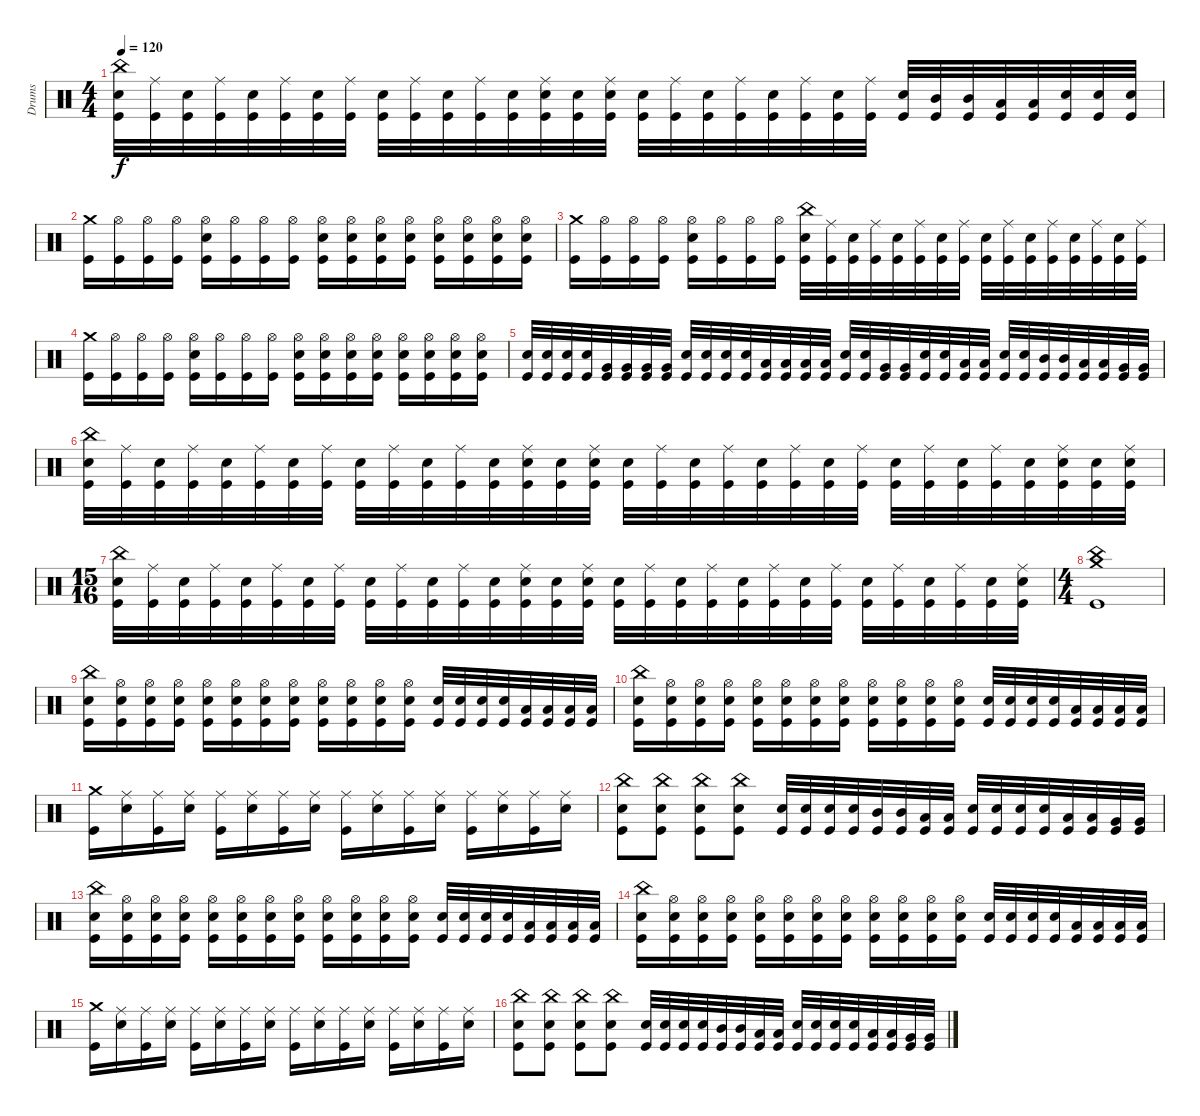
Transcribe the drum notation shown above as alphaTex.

\track ("Drums" "Drums") {instrument percussion}
\staff {score}
\articulation defaults
\ts (4 4)
\tempo 120
\clef neutral
\ks c
("China (hit)" "Electric Snare (hit)" "Kick (hit)").32{dy f} ("Ride (middle)" "Kick (hit)").32 ("Electric Snare (hit)" "Kick (hit)").32 ("Ride (middle)" "Kick (hit)").32 ("Electric Snare (hit)" "Kick (hit)").32 ("Ride (middle)" "Kick (hit)").32 ("Electric Snare (hit)" "Kick (hit)").32 ("Ride (middle)" "Kick (hit)").32 ("Electric Snare (hit)" "Kick (hit)").32 ("Ride (middle)" "Kick (hit)").32 ("Electric Snare (hit)" "Kick (hit)").32 ("Ride (middle)" "Kick (hit)").32 ("Electric Snare (hit)" "Kick (hit)").32 ("Ride (middle)" "Electric Snare (hit)" "Kick (hit)").32 ("Electric Snare (hit)" "Kick (hit)").32 ("Ride (middle)" "Electric Snare (hit)" "Kick (hit)").32 ("Electric Snare (hit)" "Kick (hit)").32 ("Ride (middle)" "Kick (hit)").32 ("Electric Snare (hit)" "Kick (hit)").32 ("Ride (middle)" "Kick (hit)").32 ("Electric Snare (hit)" "Kick (hit)").32 ("Ride (middle)" "Kick (hit)").32 ("Electric Snare (hit)" "Kick (hit)").32 ("Ride (middle)" "Kick (hit)").32 ("Electric Snare (hit)" "Kick (hit)").32 ("Mid Tom (hit)" "Kick (hit)").32 ("Mid Tom (hit)" "Kick (hit)").32 ("Low Tom (hit)" "Kick (hit)").32 ("Low Tom (hit)" "Kick (hit)").32 ("Electric Snare (hit)" "Kick (hit)").32 ("Electric Snare (hit)" "Kick (hit)").32 ("Electric Snare (hit)" "Kick (hit)").32 |
("Crash medium (hit)" "Kick (hit)").16 ("Hi-Hat (open)" "Kick (hit)").16 ("Hi-Hat (open)" "Kick (hit)").16 ("Hi-Hat (open)" "Kick (hit)").16 ("Hi-Hat (open)" "Electric Snare (hit)" "Kick (hit)").16 ("Hi-Hat (open)" "Kick (hit)").16 ("Hi-Hat (open)" "Kick (hit)").16 ("Hi-Hat (open)" "Kick (hit)").16 ("Hi-Hat (open)" "Electric Snare (hit)" "Kick (hit)").16 ("Hi-Hat (open)" "Electric Snare (hit)" "Kick (hit)").16 ("Hi-Hat (open)" "Electric Snare (hit)" "Kick (hit)").16 ("Hi-Hat (open)" "Electric Snare (hit)" "Kick (hit)").16 ("Hi-Hat (open)" "Electric Snare (hit)" "Kick (hit)").16 ("Hi-Hat (open)" "Electric Snare (hit)" "Kick (hit)").16 ("Hi-Hat (open)" "Electric Snare (hit)" "Kick (hit)").16 ("Hi-Hat (open)" "Electric Snare (hit)" "Kick (hit)").16 |
("Crash medium (hit)" "Kick (hit)").16 ("Hi-Hat (open)" "Kick (hit)").16 ("Hi-Hat (open)" "Kick (hit)").16 ("Hi-Hat (open)" "Kick (hit)").16 ("Hi-Hat (open)" "Electric Snare (hit)" "Kick (hit)").16 ("Hi-Hat (open)" "Kick (hit)").16 ("Hi-Hat (open)" "Kick (hit)").16 ("Hi-Hat (open)" "Kick (hit)").16 ("China (hit)" "Electric Snare (hit)" "Kick (hit)").32 ("Ride (middle)" "Kick (hit)").32 ("Electric Snare (hit)" "Kick (hit)").32 ("Ride (middle)" "Kick (hit)").32 ("Electric Snare (hit)" "Kick (hit)").32 ("Ride (middle)" "Kick (hit)").32 ("Electric Snare (hit)" "Kick (hit)").32 ("Ride (middle)" "Kick (hit)").32 ("Electric Snare (hit)" "Kick (hit)").32 ("Ride (middle)" "Kick (hit)").32 ("Electric Snare (hit)" "Kick (hit)").32 ("Ride (middle)" "Kick (hit)").32 ("Electric Snare (hit)" "Kick (hit)").32 ("Ride (middle)" "Kick (hit)").32 ("Electric Snare (hit)" "Kick (hit)").32 ("Ride (middle)" "Kick (hit)").32 |
("Crash medium (hit)" "Kick (hit)").16 ("Hi-Hat (open)" "Kick (hit)").16 ("Hi-Hat (open)" "Kick (hit)").16 ("Hi-Hat (open)" "Kick (hit)").16 ("Hi-Hat (open)" "Electric Snare (hit)" "Kick (hit)").16 ("Hi-Hat (open)" "Kick (hit)").16 ("Hi-Hat (open)" "Kick (hit)").16 ("Hi-Hat (open)" "Kick (hit)").16 ("Hi-Hat (open)" "Electric Snare (hit)" "Kick (hit)").16 ("Hi-Hat (open)" "Electric Snare (hit)" "Kick (hit)").16 ("Hi-Hat (open)" "Electric Snare (hit)" "Kick (hit)").16 ("Hi-Hat (open)" "Electric Snare (hit)" "Kick (hit)").16 ("Hi-Hat (open)" "Electric Snare (hit)" "Kick (hit)").16 ("Hi-Hat (open)" "Electric Snare (hit)" "Kick (hit)").16 ("Hi-Hat (open)" "Electric Snare (hit)" "Kick (hit)").16 ("Hi-Hat (open)" "Electric Snare (hit)" "Kick (hit)").16 |
("Electric Snare (hit)" "Kick (hit)").32 ("Electric Snare (hit)" "Kick (hit)").32 ("Electric Snare (hit)" "Kick (hit)").32 ("Electric Snare (hit)" "Kick (hit)").32 ("Very Low Tom (hit)" "Kick (hit)").32 ("Very Low Tom (hit)" "Kick (hit)").32 ("Very Low Tom (hit)" "Kick (hit)").32 ("Very Low Tom (hit)" "Kick (hit)").32 ("Electric Snare (hit)" "Kick (hit)").32 ("Electric Snare (hit)" "Kick (hit)").32 ("Electric Snare (hit)" "Kick (hit)").32 ("Electric Snare (hit)" "Kick (hit)").32 ("Low Tom (hit)" "Kick (hit)").32 ("Low Tom (hit)" "Kick (hit)").32 ("Low Tom (hit)" "Kick (hit)").32 ("Low Tom (hit)" "Kick (hit)").32 ("Electric Snare (hit)" "Kick (hit)").32 ("Electric Snare (hit)" "Kick (hit)").32 ("Very Low Tom (hit)" "Kick (hit)").32 ("Very Low Tom (hit)" "Kick (hit)").32 ("Electric Snare (hit)" "Kick (hit)").32 ("Electric Snare (hit)" "Kick (hit)").32 ("Low Floor Tom (hit)" "Kick (hit)").32 ("Low Floor Tom (hit)" "Kick (hit)").32 ("Electric Snare (hit)" "Kick (hit)").32 ("Electric Snare (hit)" "Kick (hit)").32 ("Mid Tom (hit)" "Kick (hit)").32 ("Mid Tom (hit)" "Kick (hit)").32 ("Low Tom (hit)" "Kick (hit)").32 ("Low Tom (hit)" "Kick (hit)").32 ("Very Low Tom (hit)" "Kick (hit)").32 ("Very Low Tom (hit)" "Kick (hit)").32 |
("China (hit)" "Electric Snare (hit)" "Kick (hit)").32 ("Ride (middle)" "Kick (hit)").32 ("Electric Snare (hit)" "Kick (hit)").32 ("Ride (middle)" "Kick (hit)").32 ("Electric Snare (hit)" "Kick (hit)").32 ("Ride (middle)" "Kick (hit)").32 ("Electric Snare (hit)" "Kick (hit)").32 ("Ride (middle)" "Kick (hit)").32 ("Electric Snare (hit)" "Kick (hit)").32 ("Ride (middle)" "Kick (hit)").32 ("Electric Snare (hit)" "Kick (hit)").32 ("Ride (middle)" "Kick (hit)").32 ("Electric Snare (hit)" "Kick (hit)").32 ("Ride (middle)" "Electric Snare (hit)" "Kick (hit)").32 ("Electric Snare (hit)" "Kick (hit)").32 ("Ride (middle)" "Electric Snare (hit)" "Kick (hit)").32 ("Electric Snare (hit)" "Kick (hit)").32 ("Ride (middle)" "Kick (hit)").32 ("Electric Snare (hit)" "Kick (hit)").32 ("Ride (middle)" "Kick (hit)").32 ("Electric Snare (hit)" "Kick (hit)").32 ("Ride (middle)" "Kick (hit)").32 ("Electric Snare (hit)" "Kick (hit)").32 ("Ride (middle)" "Kick (hit)").32 ("Electric Snare (hit)" "Kick (hit)").32 ("Ride (middle)" "Kick (hit)").32 ("Electric Snare (hit)" "Kick (hit)").32 ("Ride (middle)" "Kick (hit)").32 ("Electric Snare (hit)" "Kick (hit)").32 ("Ride (middle)" "Electric Snare (hit)" "Kick (hit)").32 ("Electric Snare (hit)" "Kick (hit)").32 ("Ride (middle)" "Electric Snare (hit)" "Kick (hit)").32 |
\ts (15 16)
("China (hit)" "Electric Snare (hit)" "Kick (hit)").32 ("Ride (middle)" "Kick (hit)").32 ("Electric Snare (hit)" "Kick (hit)").32 ("Ride (middle)" "Kick (hit)").32 ("Electric Snare (hit)" "Kick (hit)").32 ("Ride (middle)" "Kick (hit)").32 ("Electric Snare (hit)" "Kick (hit)").32 ("Ride (middle)" "Kick (hit)").32 ("Electric Snare (hit)" "Kick (hit)").32 ("Ride (middle)" "Kick (hit)").32 ("Electric Snare (hit)" "Kick (hit)").32 ("Ride (middle)" "Kick (hit)").32 ("Electric Snare (hit)" "Kick (hit)").32 ("Ride (middle)" "Electric Snare (hit)" "Kick (hit)").32 ("Electric Snare (hit)" "Kick (hit)").32 ("Ride (middle)" "Electric Snare (hit)" "Kick (hit)").32 ("Electric Snare (hit)" "Kick (hit)").32 ("Ride (middle)" "Kick (hit)").32 ("Electric Snare (hit)" "Kick (hit)").32 ("Ride (middle)" "Kick (hit)").32 ("Electric Snare (hit)" "Kick (hit)").32 ("Ride (middle)" "Kick (hit)").32 ("Electric Snare (hit)" "Kick (hit)").32 ("Ride (middle)" "Kick (hit)").32 ("Electric Snare (hit)" "Kick (hit)").32 ("Ride (middle)" "Kick (hit)").32 ("Electric Snare (hit)" "Kick (hit)").32 ("Ride (middle)" "Kick (hit)").32 ("Electric Snare (hit)" "Kick (hit)").32 ("Ride (middle)" "Electric Snare (hit)" "Kick (hit)").32 |
\ts (4 4)
("Crash medium (hit)" "China (hit)" "Kick (hit)").1 |
("China (hit)" "Electric Snare (hit)" "Kick (hit)").16 ("Hi-Hat (open)" "Electric Snare (hit)" "Kick (hit)").16 ("Hi-Hat (open)" "Electric Snare (hit)" "Kick (hit)").16 ("Hi-Hat (open)" "Electric Snare (hit)" "Kick (hit)").16 ("Hi-Hat (open)" "Electric Snare (hit)" "Kick (hit)").16 ("Hi-Hat (open)" "Electric Snare (hit)" "Kick (hit)").16 ("Hi-Hat (open)" "Electric Snare (hit)" "Kick (hit)").16 ("Hi-Hat (open)" "Electric Snare (hit)" "Kick (hit)").16 ("Hi-Hat (open)" "Electric Snare (hit)" "Kick (hit)").16 ("Hi-Hat (open)" "Electric Snare (hit)" "Kick (hit)").16 ("Hi-Hat (open)" "Electric Snare (hit)" "Kick (hit)").16 ("Hi-Hat (open)" "Electric Snare (hit)" "Kick (hit)").16 ("Electric Snare (hit)" "Kick (hit)").32 ("Electric Snare (hit)" "Kick (hit)").32 ("Electric Snare (hit)" "Kick (hit)").32 ("Electric Snare (hit)" "Kick (hit)").32 ("Low Tom (hit)" "Kick (hit)").32 ("Low Tom (hit)" "Kick (hit)").32 ("Low Tom (hit)" "Kick (hit)").32 ("Low Tom (hit)" "Kick (hit)").32 |
("China (hit)" "Electric Snare (hit)" "Kick (hit)").16 ("Hi-Hat (open)" "Electric Snare (hit)" "Kick (hit)").16 ("Hi-Hat (open)" "Electric Snare (hit)" "Kick (hit)").16 ("Hi-Hat (open)" "Electric Snare (hit)" "Kick (hit)").16 ("Hi-Hat (open)" "Electric Snare (hit)" "Kick (hit)").16 ("Hi-Hat (open)" "Electric Snare (hit)" "Kick (hit)").16 ("Hi-Hat (open)" "Electric Snare (hit)" "Kick (hit)").16 ("Hi-Hat (open)" "Electric Snare (hit)" "Kick (hit)").16 ("Hi-Hat (open)" "Electric Snare (hit)" "Kick (hit)").16 ("Hi-Hat (open)" "Electric Snare (hit)" "Kick (hit)").16 ("Hi-Hat (open)" "Electric Snare (hit)" "Kick (hit)").16 ("Hi-Hat (open)" "Electric Snare (hit)" "Kick (hit)").16 ("Electric Snare (hit)" "Kick (hit)").32 ("Electric Snare (hit)" "Kick (hit)").32 ("Electric Snare (hit)" "Kick (hit)").32 ("Electric Snare (hit)" "Kick (hit)").32 ("Low Tom (hit)" "Kick (hit)").32 ("Low Tom (hit)" "Kick (hit)").32 ("Low Tom (hit)" "Kick (hit)").32 ("Low Tom (hit)" "Kick (hit)").32 |
("Crash medium (hit)" "Kick (hit)").16 ("Ride (middle)" "Electric Snare (hit)").16 ("Ride (middle)" "Kick (hit)").16 ("Ride (middle)" "Electric Snare (hit)").16 ("Ride (middle)" "Kick (hit)").16 ("Ride (middle)" "Electric Snare (hit)").16 ("Ride (middle)" "Kick (hit)").16 ("Ride (middle)" "Electric Snare (hit)").16 ("Ride (middle)" "Kick (hit)").16 ("Ride (middle)" "Electric Snare (hit)").16 ("Ride (middle)" "Kick (hit)").16 ("Ride (middle)" "Electric Snare (hit)").16 ("Ride (middle)" "Kick (hit)").16 ("Ride (middle)" "Electric Snare (hit)").16 ("Ride (middle)" "Kick (hit)").16 ("Ride (middle)" "Electric Snare (hit)").16 |
("China (hit)" "Electric Snare (hit)" "Kick (hit)").8 ("China (hit)" "Electric Snare (hit)" "Kick (hit)").8 ("China (hit)" "Electric Snare (hit)" "Kick (hit)").8 ("China (hit)" "Electric Snare (hit)" "Kick (hit)").8 ("Electric Snare (hit)" "Kick (hit)").32 ("Electric Snare (hit)" "Kick (hit)").32 ("Electric Snare (hit)" "Kick (hit)").32 ("Electric Snare (hit)" "Kick (hit)").32 ("Mid Tom (hit)" "Kick (hit)").32 ("Mid Tom (hit)" "Kick (hit)").32 ("Low Tom (hit)" "Kick (hit)").32 ("Low Tom (hit)" "Kick (hit)").32 ("Electric Snare (hit)" "Kick (hit)").32 ("Electric Snare (hit)" "Kick (hit)").32 ("Electric Snare (hit)" "Kick (hit)").32 ("Electric Snare (hit)" "Kick (hit)").32 ("Low Tom (hit)" "Kick (hit)").32 ("Low Tom (hit)" "Kick (hit)").32 ("Very Low Tom (hit)" "Kick (hit)").32 ("Very Low Tom (hit)" "Kick (hit)").32 |
("China (hit)" "Electric Snare (hit)" "Kick (hit)").16 ("Hi-Hat (open)" "Electric Snare (hit)" "Kick (hit)").16 ("Hi-Hat (open)" "Electric Snare (hit)" "Kick (hit)").16 ("Hi-Hat (open)" "Electric Snare (hit)" "Kick (hit)").16 ("Hi-Hat (open)" "Electric Snare (hit)" "Kick (hit)").16 ("Hi-Hat (open)" "Electric Snare (hit)" "Kick (hit)").16 ("Hi-Hat (open)" "Electric Snare (hit)" "Kick (hit)").16 ("Hi-Hat (open)" "Electric Snare (hit)" "Kick (hit)").16 ("Hi-Hat (open)" "Electric Snare (hit)" "Kick (hit)").16 ("Hi-Hat (open)" "Electric Snare (hit)" "Kick (hit)").16 ("Hi-Hat (open)" "Electric Snare (hit)" "Kick (hit)").16 ("Hi-Hat (open)" "Electric Snare (hit)" "Kick (hit)").16 ("Electric Snare (hit)" "Kick (hit)").32 ("Electric Snare (hit)" "Kick (hit)").32 ("Electric Snare (hit)" "Kick (hit)").32 ("Electric Snare (hit)" "Kick (hit)").32 ("Low Tom (hit)" "Kick (hit)").32 ("Low Tom (hit)" "Kick (hit)").32 ("Low Tom (hit)" "Kick (hit)").32 ("Low Tom (hit)" "Kick (hit)").32 |
("China (hit)" "Electric Snare (hit)" "Kick (hit)").16 ("Hi-Hat (open)" "Electric Snare (hit)" "Kick (hit)").16 ("Hi-Hat (open)" "Electric Snare (hit)" "Kick (hit)").16 ("Hi-Hat (open)" "Electric Snare (hit)" "Kick (hit)").16 ("Hi-Hat (open)" "Electric Snare (hit)" "Kick (hit)").16 ("Hi-Hat (open)" "Electric Snare (hit)" "Kick (hit)").16 ("Hi-Hat (open)" "Electric Snare (hit)" "Kick (hit)").16 ("Hi-Hat (open)" "Electric Snare (hit)" "Kick (hit)").16 ("Hi-Hat (open)" "Electric Snare (hit)" "Kick (hit)").16 ("Hi-Hat (open)" "Electric Snare (hit)" "Kick (hit)").16 ("Hi-Hat (open)" "Electric Snare (hit)" "Kick (hit)").16 ("Hi-Hat (open)" "Electric Snare (hit)" "Kick (hit)").16 ("Electric Snare (hit)" "Kick (hit)").32 ("Electric Snare (hit)" "Kick (hit)").32 ("Electric Snare (hit)" "Kick (hit)").32 ("Electric Snare (hit)" "Kick (hit)").32 ("Low Tom (hit)" "Kick (hit)").32 ("Low Tom (hit)" "Kick (hit)").32 ("Low Tom (hit)" "Kick (hit)").32 ("Low Tom (hit)" "Kick (hit)").32 |
("Crash medium (hit)" "Kick (hit)").16 ("Ride (middle)" "Electric Snare (hit)").16 ("Ride (middle)" "Kick (hit)").16 ("Ride (middle)" "Electric Snare (hit)").16 ("Ride (middle)" "Kick (hit)").16 ("Ride (middle)" "Electric Snare (hit)").16 ("Ride (middle)" "Kick (hit)").16 ("Ride (middle)" "Electric Snare (hit)").16 ("Ride (middle)" "Kick (hit)").16 ("Ride (middle)" "Electric Snare (hit)").16 ("Ride (middle)" "Kick (hit)").16 ("Ride (middle)" "Electric Snare (hit)").16 ("Ride (middle)" "Kick (hit)").16 ("Ride (middle)" "Electric Snare (hit)").16 ("Ride (middle)" "Kick (hit)").16 ("Ride (middle)" "Electric Snare (hit)").16 |
("China (hit)" "Electric Snare (hit)" "Kick (hit)").8 ("China (hit)" "Electric Snare (hit)" "Kick (hit)").8 ("China (hit)" "Electric Snare (hit)" "Kick (hit)").8 ("China (hit)" "Electric Snare (hit)" "Kick (hit)").8 ("Electric Snare (hit)" "Kick (hit)").32 ("Electric Snare (hit)" "Kick (hit)").32 ("Electric Snare (hit)" "Kick (hit)").32 ("Electric Snare (hit)" "Kick (hit)").32 ("Mid Tom (hit)" "Kick (hit)").32 ("Mid Tom (hit)" "Kick (hit)").32 ("Low Tom (hit)" "Kick (hit)").32 ("Low Tom (hit)" "Kick (hit)").32 ("Electric Snare (hit)" "Kick (hit)").32 ("Electric Snare (hit)" "Kick (hit)").32 ("Electric Snare (hit)" "Kick (hit)").32 ("Electric Snare (hit)" "Kick (hit)").32 ("Low Tom (hit)" "Kick (hit)").32 ("Low Tom (hit)" "Kick (hit)").32 ("Very Low Tom (hit)" "Kick (hit)").32 ("Very Low Tom (hit)" "Kick (hit)").32
